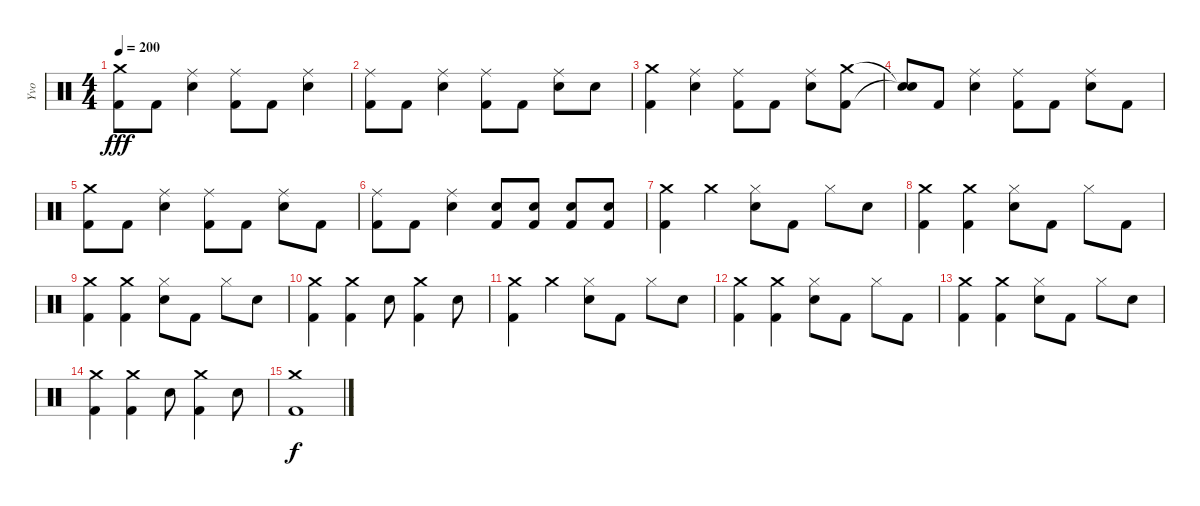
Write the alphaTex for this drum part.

\track ("Yvo" "Yvo") {instrument percussion}
\staff {score}
\articulation defaults
\ts (4 4)
\tempo 200
\clef neutral
\ks c
("Crash medium (hit)" "Kick (hit) 2").8{dy fff} "Kick (hit) 2".8 ("Ride (middle)" "Electric Snare (hit)").4 ("Ride (middle)" "Kick (hit) 2").8 "Kick (hit) 2".8 ("Ride (middle)" "Electric Snare (hit)").4 |
("Ride (middle)" "Kick (hit) 2").8 "Kick (hit) 2".8 ("Ride (middle)" "Electric Snare (hit)").4 ("Ride (middle)" "Kick (hit) 2").8 "Kick (hit) 2".8 ("Ride (middle)" "Electric Snare (hit)").8 "Electric Snare (hit)".8 |
("Crash medium (hit)" "Kick (hit) 2").4 ("Ride (middle)" "Electric Snare (hit)").4 ("Ride (middle)" "Kick (hit) 2").8 "Kick (hit) 2".8 ("Ride (middle)" "Electric Snare (hit)").8 ("Crash medium (hit)" "Kick (hit) 2").8 |
("Snare (hit)"{t} "Snare (hit)"{t}).8 "Kick (hit) 2".8 ("Ride (middle)" "Electric Snare (hit)").4 ("Ride (middle)" "Kick (hit) 2").8 "Kick (hit) 2".8 ("Ride (middle)" "Electric Snare (hit)").8 "Kick (hit) 2".8 |
("Crash medium (hit)" "Kick (hit) 2").8 "Kick (hit) 2".8 ("Ride (middle)" "Electric Snare (hit)").4 ("Ride (middle)" "Kick (hit) 2").8 "Kick (hit) 2".8 ("Ride (middle)" "Electric Snare (hit)").8 "Kick (hit) 2".8 |
("Ride (middle)" "Kick (hit) 2").8 "Kick (hit) 2".8 ("Ride (middle)" "Electric Snare (hit)").4 ("Electric Snare (hit)" "Kick (hit) 2").8 ("Electric Snare (hit)" "Kick (hit) 2").8 ("Electric Snare (hit)" "Kick (hit) 2").8 ("Electric Snare (hit)" "Kick (hit) 2").8 |
("Crash medium (hit)" "Kick (hit) 2").4 "Crash medium (hit)".4 ("Hi-Hat (closed)" "Electric Snare (hit)").8 "Kick (hit) 2".8 "Hi-Hat (closed)".8 "Electric Snare (hit)".8 |
("Crash medium (hit)" "Kick (hit) 2").4 ("Crash medium (hit)" "Kick (hit) 2").4 ("Hi-Hat (closed)" "Electric Snare (hit)").8 "Kick (hit) 2".8 "Hi-Hat (closed)".8 "Kick (hit) 2".8 |
("Crash medium (hit)" "Kick (hit) 2").4 ("Crash medium (hit)" "Kick (hit) 2").4 ("Hi-Hat (closed)" "Electric Snare (hit)").8 "Kick (hit) 2".8 "Hi-Hat (closed)".8 "Electric Snare (hit)".8 |
("Crash medium (hit)" "Kick (hit) 2").4 ("Crash medium (hit)" "Kick (hit) 2").4 "Electric Snare (hit)".8 ("Crash medium (hit)" "Kick (hit) 2").4 "Electric Snare (hit)".8 |
("Crash medium (hit)" "Kick (hit) 2").4 "Crash medium (hit)".4 ("Hi-Hat (closed)" "Electric Snare (hit)").8 "Kick (hit) 2".8 "Hi-Hat (closed)".8 "Electric Snare (hit)".8 |
("Crash medium (hit)" "Kick (hit) 2").4 ("Crash medium (hit)" "Kick (hit) 2").4 ("Hi-Hat (closed)" "Electric Snare (hit)").8 "Kick (hit) 2".8 "Hi-Hat (closed)".8 "Kick (hit) 2".8 |
("Crash medium (hit)" "Kick (hit) 2").4 ("Crash medium (hit)" "Kick (hit) 2").4 ("Hi-Hat (closed)" "Electric Snare (hit)").8 "Kick (hit) 2".8 "Hi-Hat (closed)".8 "Electric Snare (hit)".8 |
("Crash medium (hit)" "Kick (hit) 2").4 ("Crash medium (hit)" "Kick (hit) 2").4 "Electric Snare (hit)".8 ("Crash medium (hit)" "Kick (hit) 2").4 "Electric Snare (hit)".8 |
("Crash medium (hit)" "Kick (hit) 2").1{dy f volume 0}
